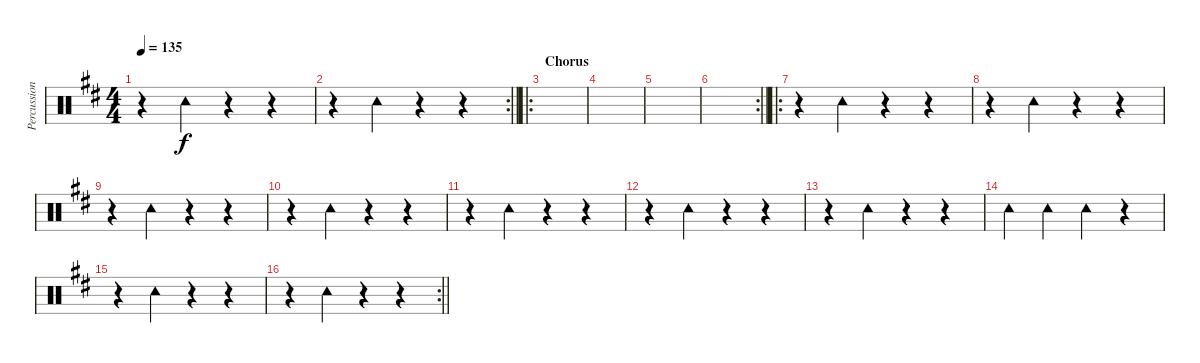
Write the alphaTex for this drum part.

\track ("Percussion" "Percussion") {instrument percussion}
\staff {score}
\articulation defaults
\ts (4 4)
\tempo 135
\clef neutral
\ks d
r.4{dy f} "Tambourine (hit)".4 r.4 r.4 |
\rc 2
\barLineRight lightlight
r.4 "Tambourine (hit)".4 r.4 r.4 |
\ro
\section ("" "Chorus")
|
|
|
\rc 2
\barLineRight lightlight
|
\ro
r.4 "Tambourine (hit)".4 r.4 r.4 |
r.4 "Tambourine (hit)".4 r.4 r.4 |
r.4 "Tambourine (hit)".4 r.4 r.4 |
r.4 "Tambourine (hit)".4 r.4 r.4 |
r.4 "Tambourine (hit)".4 r.4 r.4 |
r.4 "Tambourine (hit)".4 r.4 r.4 |
r.4 "Tambourine (hit)".4 r.4 r.4 |
"Tambourine (hit)".4 "Tambourine (hit)".4 "Tambourine (hit)".4 r.4 |
r.4 "Tambourine (hit)".4 r.4 r.4 |
\rc 2
\barLineRight lightlight
r.4 "Tambourine (hit)".4 r.4 r.4
